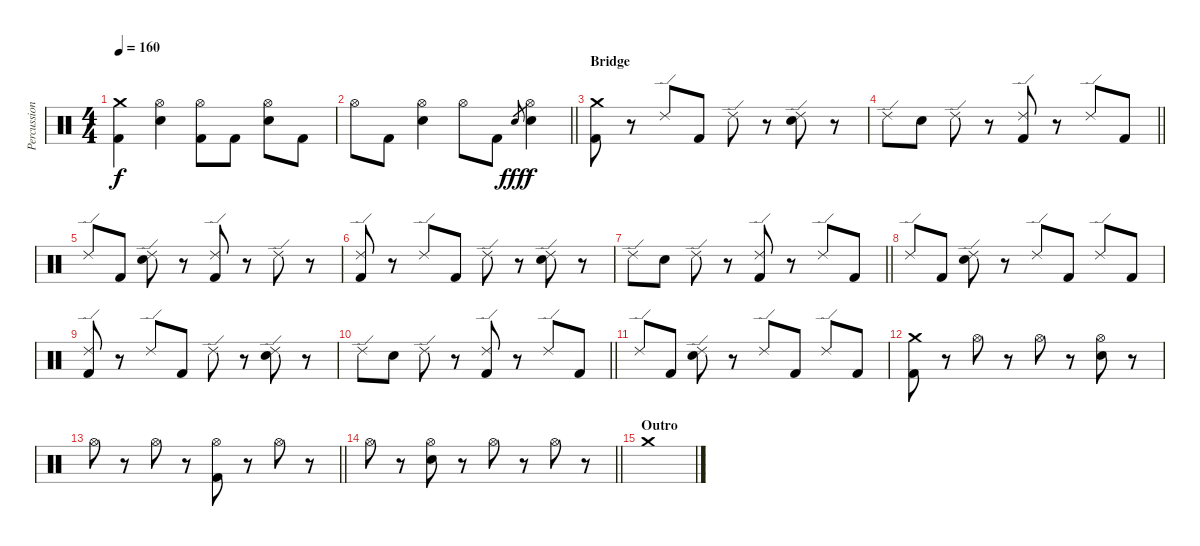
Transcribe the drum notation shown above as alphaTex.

\track ("Percussion" "Percussion") {instrument percussion}
\staff {score}
\articulation defaults
\ts (4 4)
\tempo 160
\clef neutral
\ks c
("Crash medium (hit)" "Kick (hit) 2").4{dy f} ("Hi-Hat (open)" "Electric Snare (hit)").4 ("Hi-Hat (open)" "Kick (hit) 2").8 "Kick (hit) 2".8 ("Hi-Hat (open)" "Electric Snare (hit)").8 "Kick (hit) 2".8 |
\barLineRight lightlight "Hi-Hat (open)".8 "Kick (hit) 2".8
("Hi-Hat (open)" "Electric Snare (hit)").4 "Hi-Hat (open)".8 "Kick (hit) 2".8 "Electric Snare (hit)".8{gr dy fff} ("Hi-Hat (open)" "Electric Snare (hit)").4{dy f} |
\section ("" "Bridge")
("Crash medium (hit)" "Kick (hit) 2").8 r.8 "Ride (edge) 2".8 "Kick (hit) 2".8 "Ride (edge) 2".8 r.8 ("Ride (edge) 2" "Electric Snare (hit)").8 r.8 |
\barLineRight lightlight "Ride (edge) 2".8 "Electric Snare (hit)".8 "Ride (edge) 2".8
r.8 ("Ride (edge) 2" "Kick (hit) 2").8 r.8 "Ride (edge) 2".8 "Kick (hit) 2".8 |
"Ride (edge) 2".8 "Kick (hit) 2".8 ("Ride (edge) 2" "Electric Snare (hit)").8 r.8 ("Ride (edge) 2" "Kick (hit) 2").8 r.8 "Ride (edge) 2".8 r.8 |
("Ride (edge) 2" "Kick (hit) 2").8 r.8 "Ride (edge) 2".8 "Kick (hit) 2".8 "Ride (edge) 2".8 r.8 ("Ride (edge) 2" "Electric Snare (hit)").8 r.8 |
\barLineRight lightlight "Ride (edge) 2".8 "Electric Snare (hit)".8 "Ride (edge) 2".8
r.8 ("Ride (edge) 2" "Kick (hit) 2").8 r.8 "Ride (edge) 2".8 "Kick (hit) 2".8 |
"Ride (edge) 2".8 "Kick (hit) 2".8 ("Ride (edge) 2" "Electric Snare (hit)").8 r.8 "Ride (edge) 2".8 "Kick (hit) 2".8 "Ride (edge) 2".8 "Kick (hit) 2".8 |
("Ride (edge) 2" "Kick (hit) 2").8 r.8 "Ride (edge) 2".8 "Kick (hit) 2".8 "Ride (edge) 2".8 r.8 ("Ride (edge) 2" "Electric Snare (hit)").8 r.8 |
\barLineRight lightlight "Ride (edge) 2".8 "Electric Snare (hit)".8 "Ride (edge) 2".8
r.8 ("Ride (edge) 2" "Kick (hit) 2").8 r.8 "Ride (edge) 2".8 "Kick (hit) 2".8 |
"Ride (edge) 2".8 "Kick (hit) 2".8 ("Ride (edge) 2" "Electric Snare (hit)").8 r.8 "Ride (edge) 2".8 "Kick (hit) 2".8 "Ride (edge) 2".8 "Kick (hit) 2".8 |
("Crash medium (hit)" "Kick (hit) 2").8 r.8 "Hi-Hat (open)".8 r.8 "Hi-Hat (open)".8 r.8 ("Hi-Hat (open)" "Electric Snare (hit)").8 r.8 |
\barLineRight lightlight "Hi-Hat (open)".8
r.8 "Hi-Hat (open)".8 r.8 ("Hi-Hat (open)" "Kick (hit) 2").8 r.8 "Hi-Hat (open)".8 r.8 |
\barLineRight lightlight "Hi-Hat (open)".8
r.8 ("Hi-Hat (open)" "Electric Snare (hit)").8 r.8 "Hi-Hat (open)".8 r.8 "Hi-Hat (open)".8 r.8 |
\section ("" "Outro")
"Crash medium (hit)".1
